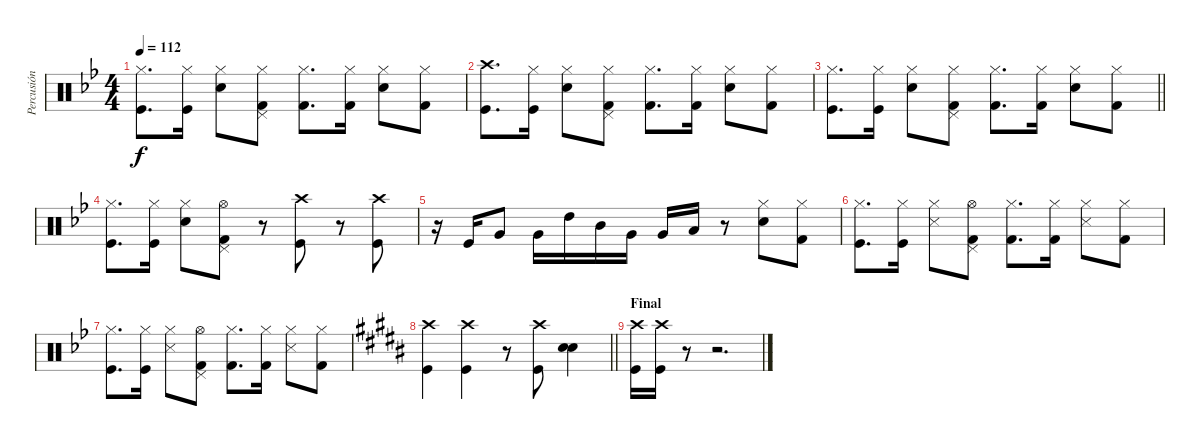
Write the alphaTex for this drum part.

\track ("Percusión" "Percusión") {instrument percussion}
\staff {score}
\articulation defaults
\ts (4 4)
\tempo 112
\clef neutral
\ks bb
("Hi-Hat (closed)" "Kick (hit)").8{d dy f} ("Kick (hit)" "Hi-Hat (closed)").16 ("Hi-Hat (closed)" "Snare (hit) 2").8 ("Hi-Hat (closed)" "Kick (hit) 2" "Pedal Hi-Hat (hit)").8 ("Kick (hit) 2" "Hi-Hat (closed)").8{d} ("Kick (hit) 2" "Hi-Hat (closed)").16 ("Snare (hit) 2" "Hi-Hat (closed)").8 ("Hi-Hat (closed)" "Kick (hit) 2").8 |
("Crash high (hit)" "Kick (hit)").8{d} ("Kick (hit)" "Hi-Hat (closed)").16 ("Hi-Hat (closed)" "Snare (hit) 2").8 ("Hi-Hat (closed)" "Kick (hit) 2" "Pedal Hi-Hat (hit)").8 ("Kick (hit) 2" "Hi-Hat (closed)").8{d} ("Kick (hit) 2" "Hi-Hat (closed)").16 ("Snare (hit) 2" "Hi-Hat (closed)").8 ("Hi-Hat (closed)" "Kick (hit) 2").8 |
\barLineRight lightlight
("Hi-Hat (closed)" "Kick (hit)").8{d} ("Kick (hit)" "Hi-Hat (closed)").16 ("Hi-Hat (closed)" "Snare (hit) 2").8 ("Hi-Hat (closed)" "Kick (hit) 2" "Pedal Hi-Hat (hit)").8 ("Kick (hit) 2" "Hi-Hat (closed)").8{d} ("Kick (hit) 2" "Hi-Hat (closed)").16 ("Snare (hit) 2" "Hi-Hat (closed)").8 ("Hi-Hat (closed)" "Kick (hit) 2").8 |
\section ("" "")
("Hi-Hat (closed)" "Kick (hit)").8{d} ("Kick (hit)" "Hi-Hat (closed)").16 ("Hi-Hat (closed)" "Snare (hit) 2").8 ("Kick (hit) 2" "Pedal Hi-Hat (hit)" "Hi-Hat (open)").8 r.8 ("Kick (hit)" "Crash high (hit)").8 r.8 ("Crash high (hit)" "Kick (hit)").8 |
r.16 "Kick (hit)".16 "Very Low Tom (hit)".8 "Very Low Tom (hit)".16 "High Tom (hit)".16 "Mid Tom (hit)".16 "Very Low Tom (hit)".16 "Very Low Tom (hit)".16 "Low Floor Tom (hit)".16 r.8 ("Snare (hit) 2" "Hi-Hat (closed)").8 ("Hi-Hat (closed)" "Kick (hit) 2").8 |
("Hi-Hat (closed)" "Kick (hit)").8{d} ("Kick (hit)" "Hi-Hat (closed)").16 ("Hi-Hat (closed)" "Snare (side stick) 3").8 ("Kick (hit) 2" "Pedal Hi-Hat (hit)" "Hi-Hat (open)").8 ("Kick (hit) 2" "Hi-Hat (closed)").8{d} ("Kick (hit) 2" "Hi-Hat (closed)").16 ("Snare (side stick) 3" "Hi-Hat (closed)").8 ("Hi-Hat (closed)" "Kick (hit) 2").8 |
("Hi-Hat (closed)" "Kick (hit)").8{d} ("Kick (hit)" "Hi-Hat (closed)").16 ("Hi-Hat (closed)" "Snare (side stick) 3").8 ("Kick (hit) 2" "Pedal Hi-Hat (hit)" "Hi-Hat (open)").8 ("Kick (hit) 2" "Hi-Hat (closed)").8{d} ("Kick (hit) 2" "Hi-Hat (closed)").16 ("Snare (side stick) 3" "Hi-Hat (closed)").8 ("Hi-Hat (closed)" "Kick (hit) 2").8 |
\barLineRight lightlight
\ks b
("Kick (hit)" "Crash high (hit)").4 ("Crash high (hit)" "Kick (hit)").4 r.8 ("Crash high (hit)" "Kick (hit)").8 ("Snare (hit) 2" "Snare (hit) 2").4 |
\section ("" "Final")
("Crash high (hit)" "Kick (hit)").16 ("Crash high (hit)" "Kick (hit)").16 r.8 r.2{d}
